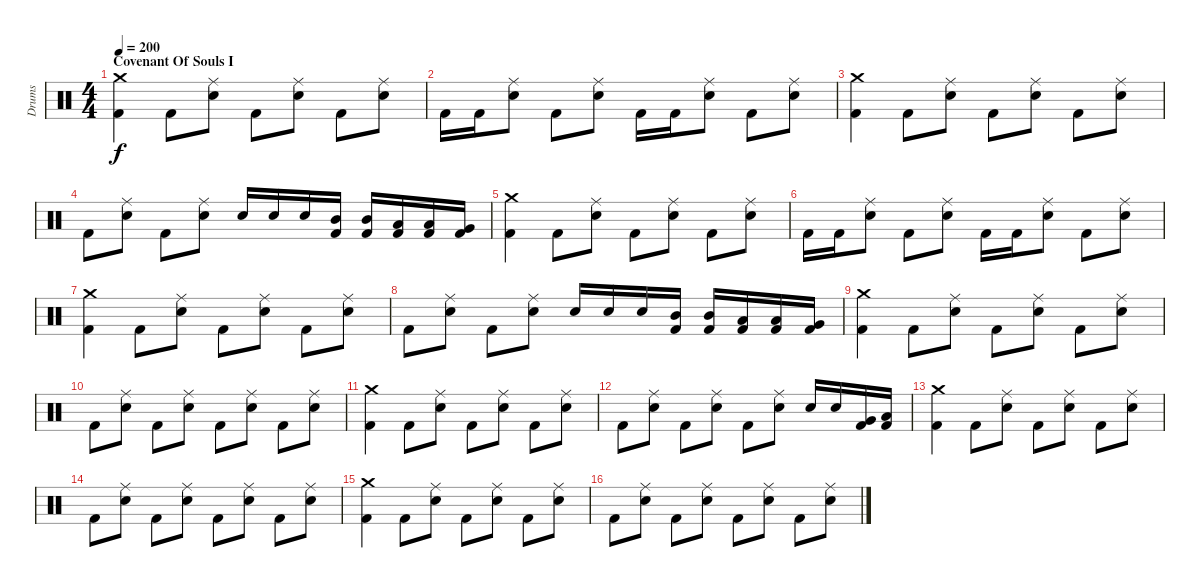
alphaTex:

\track ("Drums" "Drums") {instrument percussion}
\staff {score}
\articulation defaults
\ts (4 4)
\section ("" "Covenant Of Souls I")
\tempo 200
\clef neutral
\ks c
("Crash medium (hit)" "Kick (hit) 2").4{dy f} "Kick (hit) 2".8 ("Ride (middle)" "Electric Snare (hit)").8 "Kick (hit) 2".8 ("Ride (middle)" "Electric Snare (hit)").8 "Kick (hit) 2".8 ("Ride (middle)" "Electric Snare (hit)").8 |
"Kick (hit) 2".16 "Kick (hit) 2".16 ("Ride (middle)" "Electric Snare (hit)").8 "Kick (hit) 2".8 ("Ride (middle)" "Electric Snare (hit)").8 "Kick (hit) 2".16 "Kick (hit) 2".16 ("Ride (middle)" "Electric Snare (hit)").8 "Kick (hit) 2".8 ("Ride (middle)" "Electric Snare (hit)").8 |
("Crash medium (hit)" "Kick (hit) 2").4 "Kick (hit) 2".8 ("Ride (middle)" "Electric Snare (hit)").8 "Kick (hit) 2".8 ("Ride (middle)" "Electric Snare (hit)").8 "Kick (hit) 2".8 ("Ride (middle)" "Electric Snare (hit)").8 |
"Kick (hit) 2".8 ("Ride (middle)" "Electric Snare (hit)").8 "Kick (hit) 2".8 ("Ride (middle)" "Electric Snare (hit)").8 "Electric Snare (hit)".16 "Electric Snare (hit)".16 "Electric Snare (hit)".16 ("Mid Tom (hit)" "Kick (hit) 2").16 ("Mid Tom (hit)" "Kick (hit) 2").16 ("Low Tom (hit)" "Kick (hit) 2").16 ("Low Tom (hit)" "Kick (hit) 2").16 ("Very Low Tom (hit)" "Kick (hit) 2").16 |
("Crash medium (hit)" "Kick (hit) 2").4 "Kick (hit) 2".8 ("Ride (middle)" "Electric Snare (hit)").8 "Kick (hit) 2".8 ("Ride (middle)" "Electric Snare (hit)").8 "Kick (hit) 2".8 ("Ride (middle)" "Electric Snare (hit)").8 |
"Kick (hit) 2".16 "Kick (hit) 2".16 ("Ride (middle)" "Electric Snare (hit)").8 "Kick (hit) 2".8 ("Ride (middle)" "Electric Snare (hit)").8 "Kick (hit) 2".16 "Kick (hit) 2".16 ("Ride (middle)" "Electric Snare (hit)").8 "Kick (hit) 2".8 ("Ride (middle)" "Electric Snare (hit)").8 |
("Crash medium (hit)" "Kick (hit) 2").4 "Kick (hit) 2".8 ("Ride (middle)" "Electric Snare (hit)").8 "Kick (hit) 2".8 ("Ride (middle)" "Electric Snare (hit)").8 "Kick (hit) 2".8 ("Ride (middle)" "Electric Snare (hit)").8 |
"Kick (hit) 2".8 ("Ride (middle)" "Electric Snare (hit)").8 "Kick (hit) 2".8 ("Ride (middle)" "Electric Snare (hit)").8 "Electric Snare (hit)".16 "Electric Snare (hit)".16 "Electric Snare (hit)".16 ("Mid Tom (hit)" "Kick (hit) 2").16 ("Mid Tom (hit)" "Kick (hit) 2").16 ("Low Tom (hit)" "Kick (hit) 2").16 ("Low Tom (hit)" "Kick (hit) 2").16 ("Very Low Tom (hit)" "Kick (hit) 2").16 |
("Crash medium (hit)" "Kick (hit) 2").4 "Kick (hit) 2".8 ("Ride (middle)" "Electric Snare (hit)").8 "Kick (hit) 2".8 ("Ride (middle)" "Electric Snare (hit)").8 "Kick (hit) 2".8 ("Ride (middle)" "Electric Snare (hit)").8 |
"Kick (hit) 2".8 ("Ride (middle)" "Electric Snare (hit)").8 "Kick (hit) 2".8 ("Ride (middle)" "Electric Snare (hit)").8 "Kick (hit) 2".8 ("Ride (middle)" "Electric Snare (hit)").8 "Kick (hit) 2".8 ("Ride (middle)" "Electric Snare (hit)").8 |
("Crash medium (hit)" "Kick (hit) 2").4 "Kick (hit) 2".8 ("Ride (middle)" "Electric Snare (hit)").8 "Kick (hit) 2".8 ("Ride (middle)" "Electric Snare (hit)").8 "Kick (hit) 2".8 ("Ride (middle)" "Electric Snare (hit)").8 |
"Kick (hit) 2".8 ("Ride (middle)" "Electric Snare (hit)").8 "Kick (hit) 2".8 ("Ride (middle)" "Electric Snare (hit)").8 "Kick (hit) 2".8 ("Ride (middle)" "Electric Snare (hit)").8 "Electric Snare (hit)".16 "Electric Snare (hit)".16 ("Very Low Tom (hit)" "Kick (hit) 2").16 ("Low Floor Tom (hit)" "Kick (hit) 2").16 |
("Crash medium (hit)" "Kick (hit) 2").4 "Kick (hit) 2".8 ("Ride (middle)" "Electric Snare (hit)").8 "Kick (hit) 2".8 ("Ride (middle)" "Electric Snare (hit)").8 "Kick (hit) 2".8 ("Ride (middle)" "Electric Snare (hit)").8 |
"Kick (hit) 2".8 ("Ride (middle)" "Electric Snare (hit)").8 "Kick (hit) 2".8 ("Ride (middle)" "Electric Snare (hit)").8 "Kick (hit) 2".8 ("Ride (middle)" "Electric Snare (hit)").8 "Kick (hit) 2".8 ("Ride (middle)" "Electric Snare (hit)").8 |
("Crash medium (hit)" "Kick (hit) 2").4 "Kick (hit) 2".8 ("Ride (middle)" "Electric Snare (hit)").8 "Kick (hit) 2".8 ("Ride (middle)" "Electric Snare (hit)").8 "Kick (hit) 2".8 ("Ride (middle)" "Electric Snare (hit)").8 |
"Kick (hit) 2".8 ("Ride (middle)" "Electric Snare (hit)").8 "Kick (hit) 2".8 ("Ride (middle)" "Electric Snare (hit)").8 "Kick (hit) 2".8 ("Ride (middle)" "Electric Snare (hit)").8 "Kick (hit) 2".8 ("Ride (middle)" "Electric Snare (hit)").8
